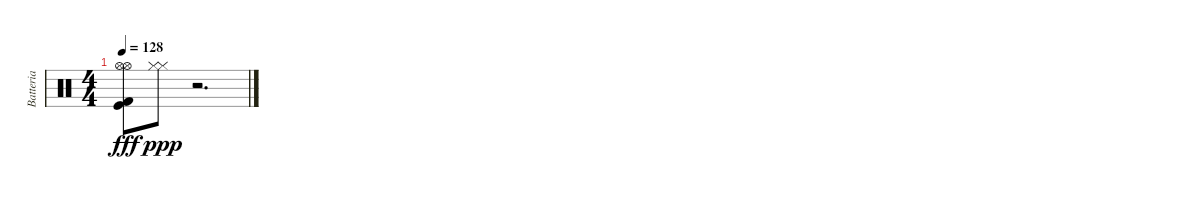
\track ("Batteria" "Batteria") {instrument percussion}
\staff {score}
\articulation defaults
\ts (4 4)
\tempo 128
\clef neutral
\ks c
("Hi-Hat (open)" "Hi-Hat (open)" "Kick (hit) 2" "Kick (hit)").8{dy fff} ("Hi-Hat (closed)" "Hi-Hat (closed)").8{dy ppp} r.2{d}
